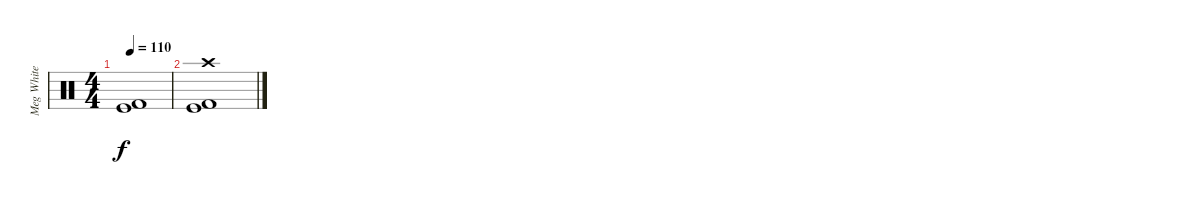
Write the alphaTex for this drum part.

\track ("Meg White (Drums)" "Meg White ") {instrument percussion}
\staff {score}
\articulation defaults
\ts (4 4)
\tempo 110
\clef neutral
\ks c
("Kick (hit)" "Kick (hit) 2").1{dy f} |
("Kick (hit)" "Kick (hit) 2" "Crash high (hit)").1
